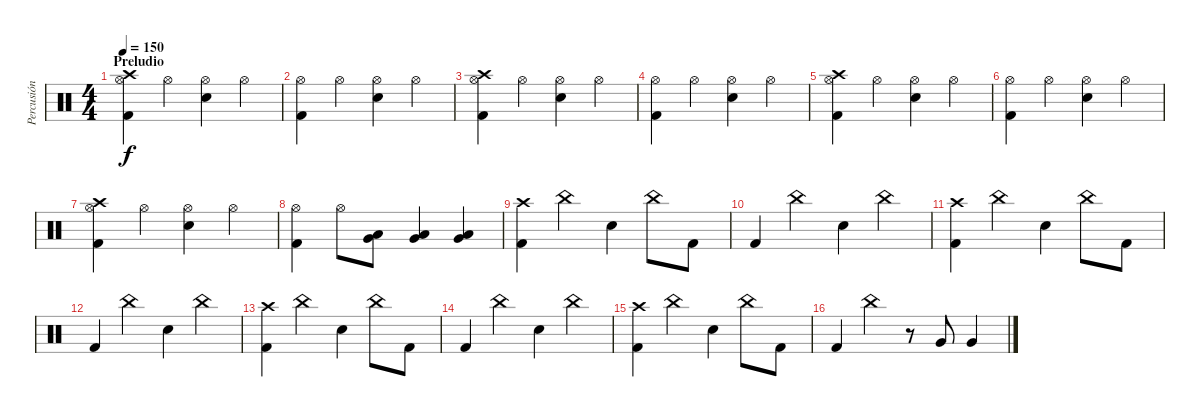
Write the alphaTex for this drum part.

\track ("Percusión" "Percusión") {instrument percussion}
\staff {score}
\articulation defaults
\ts (4 4)
\section ("" "Preludio")
\tempo 150
\clef neutral
\ks c
("Crash high (hit)" "Hi-Hat (open)" "Kick (hit) 2").4{dy f} "Hi-Hat (open)".4 ("Hi-Hat (open)" "Snare (hit) 2").4 "Hi-Hat (open)".4 |
("Hi-Hat (open)" "Kick (hit) 2").4 "Hi-Hat (open)".4 ("Hi-Hat (open)" "Snare (hit) 2").4 "Hi-Hat (open)".4 |
("Crash high (hit)" "Hi-Hat (open)" "Kick (hit) 2").4 "Hi-Hat (open)".4 ("Hi-Hat (open)" "Snare (hit) 2").4 "Hi-Hat (open)".4 |
("Hi-Hat (open)" "Kick (hit) 2").4 "Hi-Hat (open)".4 ("Hi-Hat (open)" "Snare (hit) 2").4 "Hi-Hat (open)".4 |
("Crash high (hit)" "Hi-Hat (open)" "Kick (hit) 2").4 "Hi-Hat (open)".4 ("Hi-Hat (open)" "Snare (hit) 2").4 "Hi-Hat (open)".4 |
("Hi-Hat (open)" "Kick (hit) 2").4 "Hi-Hat (open)".4 ("Hi-Hat (open)" "Snare (hit) 2").4 "Hi-Hat (open)".4 |
("Crash high (hit)" "Hi-Hat (open)" "Kick (hit) 2").4 "Hi-Hat (open)".4 ("Hi-Hat (open)" "Snare (hit) 2").4 "Hi-Hat (open)".4 |
("Hi-Hat (open)" "Kick (hit) 2").4 "Hi-Hat (open)".8 ("Low Floor Tom (hit)" "Very Low Tom (hit)").8 ("Low Floor Tom (hit)" "Very Low Tom (hit)").4 ("Low Floor Tom (hit)" "Very Low Tom (hit)").4 |
("Crash high (hit)" "Kick (hit) 2").4 "China (hit)".4 "Snare (hit) 2".4 "China (hit)".8 "Kick (hit) 2".8 |
"Kick (hit) 2".4 "China (hit)".4 "Snare (hit) 2".4 "China (hit)".4 |
("Crash high (hit)" "Kick (hit) 2").4 "China (hit)".4 "Snare (hit) 2".4 "China (hit)".8 "Kick (hit) 2".8 |
"Kick (hit) 2".4 "China (hit)".4 "Snare (hit) 2".4 "China (hit)".4 |
("Crash high (hit)" "Kick (hit) 2").4 "China (hit)".4 "Snare (hit) 2".4 "China (hit)".8 "Kick (hit) 2".8 |
"Kick (hit) 2".4 "China (hit)".4 "Snare (hit) 2".4 "China (hit)".4 |
("Crash high (hit)" "Kick (hit) 2").4 "China (hit)".4 "Snare (hit) 2".4 "China (hit)".8 "Kick (hit) 2".8 |
"Kick (hit) 2".4 "China (hit)".4 r.8 "Very Low Tom (hit)".8 "Very Low Tom (hit)".4
